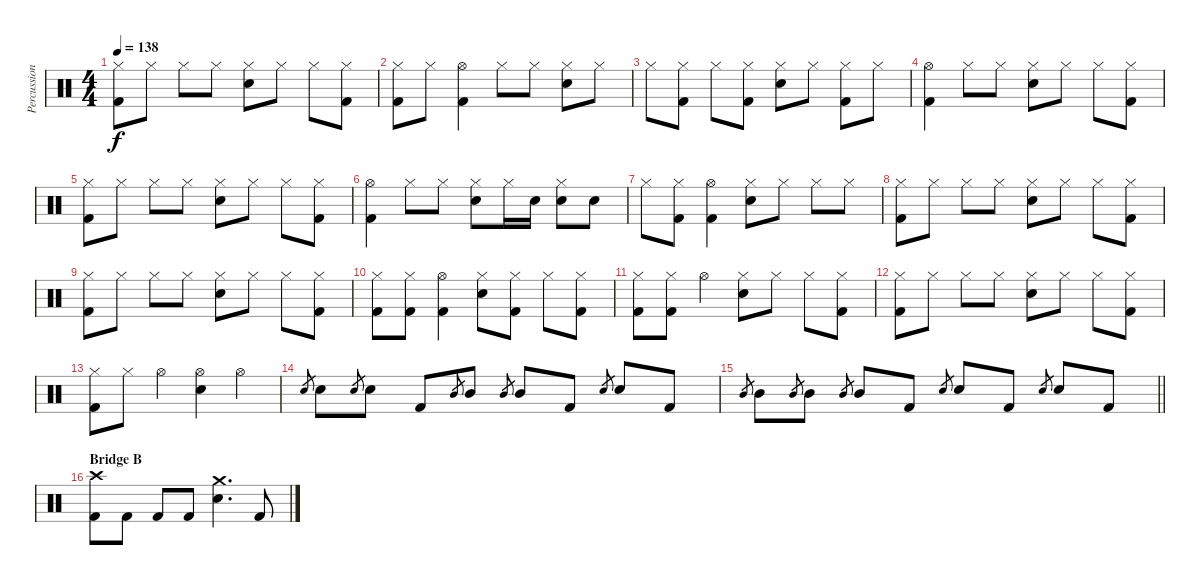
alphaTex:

\track ("Percussion" "Percussion") {instrument percussion}
\staff {score}
\articulation defaults
\ts (4 4)
\tempo 138
\clef neutral
\ks c
("Hi-Hat (closed)" "Kick (hit) 2").8{dy f} "Hi-Hat (closed)".8 "Hi-Hat (closed)".8 "Hi-Hat (closed)".8 ("Hi-Hat (closed)" "Electric Snare (hit)").8 "Hi-Hat (closed)".8 "Hi-Hat (closed)".8 ("Hi-Hat (closed)" "Kick (hit) 2").8 |
("Hi-Hat (closed)" "Kick (hit) 2").8 "Hi-Hat (closed)".8 ("Hi-Hat (open)" "Kick (hit) 2").4 "Hi-Hat (closed)".8 "Hi-Hat (closed)".8 ("Hi-Hat (closed)" "Electric Snare (hit)").8 "Hi-Hat (closed)".8 |
"Hi-Hat (closed)".8 ("Hi-Hat (closed)" "Kick (hit) 2").8 "Hi-Hat (closed)".8 ("Hi-Hat (closed)" "Kick (hit) 2").8 ("Hi-Hat (closed)" "Electric Snare (hit)").8 "Hi-Hat (closed)".8 ("Hi-Hat (closed)" "Kick (hit) 2").8 "Hi-Hat (closed)".8 |
("Hi-Hat (open)" "Kick (hit) 2").4 "Hi-Hat (closed)".8 "Hi-Hat (closed)".8 ("Hi-Hat (closed)" "Electric Snare (hit)").8 "Hi-Hat (closed)".8 "Hi-Hat (closed)".8 ("Hi-Hat (closed)" "Kick (hit) 2").8 |
("Hi-Hat (closed)" "Kick (hit) 2").8 "Hi-Hat (closed)".8 "Hi-Hat (closed)".8 "Hi-Hat (closed)".8 ("Hi-Hat (closed)" "Electric Snare (hit)").8 "Hi-Hat (closed)".8 "Hi-Hat (closed)".8 ("Hi-Hat (closed)" "Kick (hit) 2").8 |
("Hi-Hat (open)" "Kick (hit) 2").4 "Hi-Hat (closed)".8 "Hi-Hat (closed)".8 ("Hi-Hat (closed)" "Electric Snare (hit)").8 "Hi-Hat (closed)".16 "Electric Snare (hit)".16 ("Hi-Hat (closed)" "Electric Snare (hit)").8 "Electric Snare (hit)".8 |
"Hi-Hat (closed)".8 ("Hi-Hat (closed)" "Kick (hit) 2").8 ("Hi-Hat (open)" "Kick (hit) 2").4 ("Hi-Hat (closed)" "Electric Snare (hit)").8 "Hi-Hat (closed)".8 "Hi-Hat (closed)".8 "Hi-Hat (closed)".8 |
("Hi-Hat (closed)" "Kick (hit) 2").8 "Hi-Hat (closed)".8 "Hi-Hat (closed)".8 "Hi-Hat (closed)".8 ("Hi-Hat (closed)" "Electric Snare (hit)").8 "Hi-Hat (closed)".8 "Hi-Hat (closed)".8 ("Hi-Hat (closed)" "Kick (hit) 2").8 |
("Hi-Hat (closed)" "Kick (hit) 2").8 "Hi-Hat (closed)".8 "Hi-Hat (closed)".8 "Hi-Hat (closed)".8 ("Hi-Hat (closed)" "Electric Snare (hit)").8 "Hi-Hat (closed)".8 "Hi-Hat (closed)".8 ("Hi-Hat (closed)" "Kick (hit) 2").8 |
("Hi-Hat (closed)" "Kick (hit) 2").8 ("Hi-Hat (closed)" "Kick (hit) 2").8 ("Hi-Hat (open)" "Kick (hit) 2").4 ("Hi-Hat (closed)" "Electric Snare (hit)").8 ("Hi-Hat (closed)" "Kick (hit) 2").8 "Hi-Hat (closed)".8 ("Hi-Hat (closed)" "Kick (hit) 2").8 |
("Hi-Hat (closed)" "Kick (hit) 2").8 ("Hi-Hat (closed)" "Kick (hit) 2").8 "Hi-Hat (open)".4 ("Hi-Hat (closed)" "Electric Snare (hit)").8 "Hi-Hat (closed)".8 "Hi-Hat (closed)".8 ("Hi-Hat (closed)" "Kick (hit) 2").8 |
("Hi-Hat (closed)" "Kick (hit) 2").8 "Hi-Hat (closed)".8 "Hi-Hat (closed)".8 "Hi-Hat (closed)".8 ("Hi-Hat (closed)" "Electric Snare (hit)").8 "Hi-Hat (closed)".8 "Hi-Hat (closed)".8 ("Hi-Hat (closed)" "Kick (hit) 2").8 |
("Hi-Hat (closed)" "Kick (hit) 2").8 "Hi-Hat (closed)".8 "Hi-Hat (open)".4 ("Hi-Hat (open)" "Electric Snare (hit)").4 "Hi-Hat (open)".4 |
"Electric Snare (hit)".8{gr} "Electric Snare (hit)".8 "Electric Snare (hit)".8{gr} "Electric Snare (hit)".8 "Kick (hit) 2".8 "Mid Tom (hit)".8{gr} "Mid Tom (hit)".8 "Mid Tom (hit)".8{gr} "Mid Tom (hit)".8 "Kick (hit) 2".8 "Electric Snare (hit)".8{gr} "Electric Snare (hit)".8 "Kick (hit) 2".8 |
\barLineRight lightlight "Mid Tom (hit)".8{gr} "Mid Tom (hit)".8 "Mid Tom (hit)".8{gr} "Mid Tom (hit)".8 "Mid Tom (hit)".8{gr} "Mid Tom (hit)".8 "Kick (hit) 2".8 "Electric Snare (hit)".8{gr} "Electric Snare (hit)".8 "Kick (hit) 2".8 "Electric Snare (hit)".8{gr} "Electric Snare (hit)".8 "Kick (hit) 2".8
|
\section ("" "Bridge B")
("Crash high (hit)" "Kick (hit) 2").8 "Kick (hit) 2".8 "Kick (hit) 2".8 "Kick (hit) 2".8 ("Crash medium (hit)" "Electric Snare (hit)").4{d} "Kick (hit) 2".8
